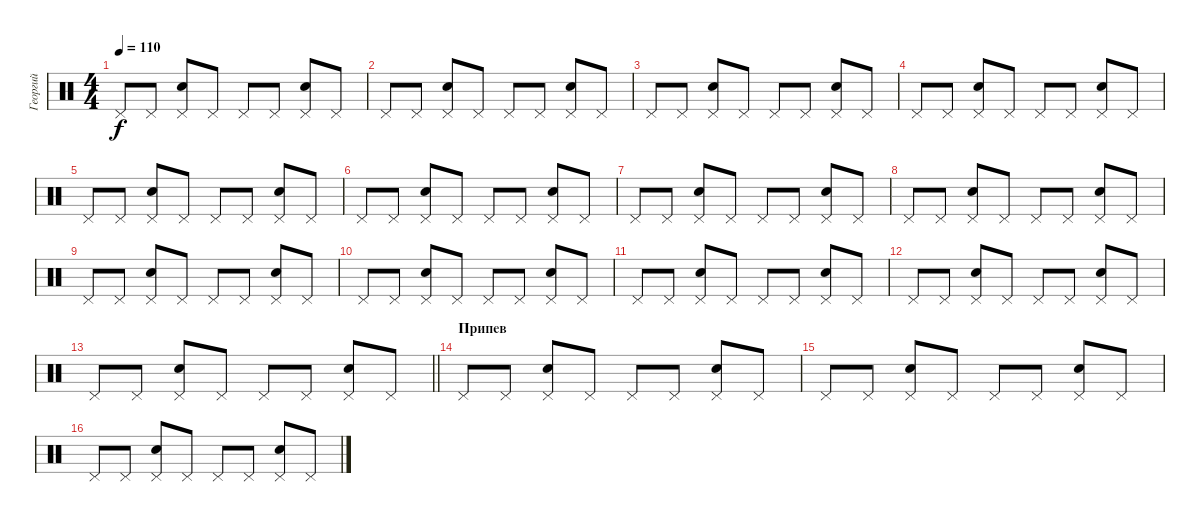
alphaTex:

\track ("Георгий" "Георгий") {instrument percussion}
\staff {score}
\articulation defaults
\ts (4 4)
\tempo 110
\clef neutral
\ks c "Pedal Hi-Hat (hit)".8{dy f} "Pedal Hi-Hat (hit)".8
("Pedal Hi-Hat (hit)" "Snare (hit) 2").8 "Pedal Hi-Hat (hit)".8 "Pedal Hi-Hat (hit)".8 "Pedal Hi-Hat (hit)".8 ("Pedal Hi-Hat (hit)" "Snare (hit) 2").8 "Pedal Hi-Hat (hit)".8 |
"Pedal Hi-Hat (hit)".8 "Pedal Hi-Hat (hit)".8 ("Pedal Hi-Hat (hit)" "Snare (hit) 2").8 "Pedal Hi-Hat (hit)".8 "Pedal Hi-Hat (hit)".8 "Pedal Hi-Hat (hit)".8 ("Pedal Hi-Hat (hit)" "Snare (hit) 2").8 "Pedal Hi-Hat (hit)".8 |
"Pedal Hi-Hat (hit)".8 "Pedal Hi-Hat (hit)".8 ("Pedal Hi-Hat (hit)" "Snare (hit) 2").8 "Pedal Hi-Hat (hit)".8 "Pedal Hi-Hat (hit)".8 "Pedal Hi-Hat (hit)".8 ("Pedal Hi-Hat (hit)" "Snare (hit) 2").8 "Pedal Hi-Hat (hit)".8 |
"Pedal Hi-Hat (hit)".8 "Pedal Hi-Hat (hit)".8 ("Pedal Hi-Hat (hit)" "Snare (hit) 2").8 "Pedal Hi-Hat (hit)".8 "Pedal Hi-Hat (hit)".8 "Pedal Hi-Hat (hit)".8 ("Pedal Hi-Hat (hit)" "Snare (hit) 2").8 "Pedal Hi-Hat (hit)".8 |
"Pedal Hi-Hat (hit)".8 "Pedal Hi-Hat (hit)".8 ("Pedal Hi-Hat (hit)" "Snare (hit) 2").8 "Pedal Hi-Hat (hit)".8 "Pedal Hi-Hat (hit)".8 "Pedal Hi-Hat (hit)".8 ("Pedal Hi-Hat (hit)" "Snare (hit) 2").8 "Pedal Hi-Hat (hit)".8 |
"Pedal Hi-Hat (hit)".8 "Pedal Hi-Hat (hit)".8 ("Pedal Hi-Hat (hit)" "Snare (hit) 2").8 "Pedal Hi-Hat (hit)".8 "Pedal Hi-Hat (hit)".8 "Pedal Hi-Hat (hit)".8 ("Pedal Hi-Hat (hit)" "Snare (hit) 2").8 "Pedal Hi-Hat (hit)".8 |
"Pedal Hi-Hat (hit)".8 "Pedal Hi-Hat (hit)".8 ("Pedal Hi-Hat (hit)" "Snare (hit) 2").8 "Pedal Hi-Hat (hit)".8 "Pedal Hi-Hat (hit)".8 "Pedal Hi-Hat (hit)".8 ("Pedal Hi-Hat (hit)" "Snare (hit) 2").8 "Pedal Hi-Hat (hit)".8 |
"Pedal Hi-Hat (hit)".8 "Pedal Hi-Hat (hit)".8 ("Pedal Hi-Hat (hit)" "Snare (hit) 2").8 "Pedal Hi-Hat (hit)".8 "Pedal Hi-Hat (hit)".8 "Pedal Hi-Hat (hit)".8 ("Pedal Hi-Hat (hit)" "Snare (hit) 2").8 "Pedal Hi-Hat (hit)".8 |
"Pedal Hi-Hat (hit)".8 "Pedal Hi-Hat (hit)".8 ("Pedal Hi-Hat (hit)" "Snare (hit) 2").8 "Pedal Hi-Hat (hit)".8 "Pedal Hi-Hat (hit)".8 "Pedal Hi-Hat (hit)".8 ("Pedal Hi-Hat (hit)" "Snare (hit) 2").8 "Pedal Hi-Hat (hit)".8 |
"Pedal Hi-Hat (hit)".8 "Pedal Hi-Hat (hit)".8 ("Pedal Hi-Hat (hit)" "Snare (hit) 2").8 "Pedal Hi-Hat (hit)".8 "Pedal Hi-Hat (hit)".8 "Pedal Hi-Hat (hit)".8 ("Pedal Hi-Hat (hit)" "Snare (hit) 2").8 "Pedal Hi-Hat (hit)".8 |
"Pedal Hi-Hat (hit)".8 "Pedal Hi-Hat (hit)".8 ("Pedal Hi-Hat (hit)" "Snare (hit) 2").8 "Pedal Hi-Hat (hit)".8 "Pedal Hi-Hat (hit)".8 "Pedal Hi-Hat (hit)".8 ("Pedal Hi-Hat (hit)" "Snare (hit) 2").8 "Pedal Hi-Hat (hit)".8 |
"Pedal Hi-Hat (hit)".8 "Pedal Hi-Hat (hit)".8 ("Pedal Hi-Hat (hit)" "Snare (hit) 2").8 "Pedal Hi-Hat (hit)".8 "Pedal Hi-Hat (hit)".8 "Pedal Hi-Hat (hit)".8 ("Pedal Hi-Hat (hit)" "Snare (hit) 2").8 "Pedal Hi-Hat (hit)".8 |
\barLineRight lightlight "Pedal Hi-Hat (hit)".8 "Pedal Hi-Hat (hit)".8
("Pedal Hi-Hat (hit)" "Snare (hit) 2").8 "Pedal Hi-Hat (hit)".8 "Pedal Hi-Hat (hit)".8 "Pedal Hi-Hat (hit)".8 ("Pedal Hi-Hat (hit)" "Snare (hit) 2").8 "Pedal Hi-Hat (hit)".8 |
\section ("" "Припев")
"Pedal Hi-Hat (hit)".8 "Pedal Hi-Hat (hit)".8 ("Pedal Hi-Hat (hit)" "Snare (hit) 2").8 "Pedal Hi-Hat (hit)".8 "Pedal Hi-Hat (hit)".8 "Pedal Hi-Hat (hit)".8 ("Pedal Hi-Hat (hit)" "Snare (hit) 2").8 "Pedal Hi-Hat (hit)".8 |
"Pedal Hi-Hat (hit)".8 "Pedal Hi-Hat (hit)".8 ("Pedal Hi-Hat (hit)" "Snare (hit) 2").8 "Pedal Hi-Hat (hit)".8 "Pedal Hi-Hat (hit)".8 "Pedal Hi-Hat (hit)".8 ("Pedal Hi-Hat (hit)" "Snare (hit) 2").8 "Pedal Hi-Hat (hit)".8 |
"Pedal Hi-Hat (hit)".8 "Pedal Hi-Hat (hit)".8 ("Pedal Hi-Hat (hit)" "Snare (hit) 2").8 "Pedal Hi-Hat (hit)".8 "Pedal Hi-Hat (hit)".8 "Pedal Hi-Hat (hit)".8 ("Pedal Hi-Hat (hit)" "Snare (hit) 2").8 "Pedal Hi-Hat (hit)".8
